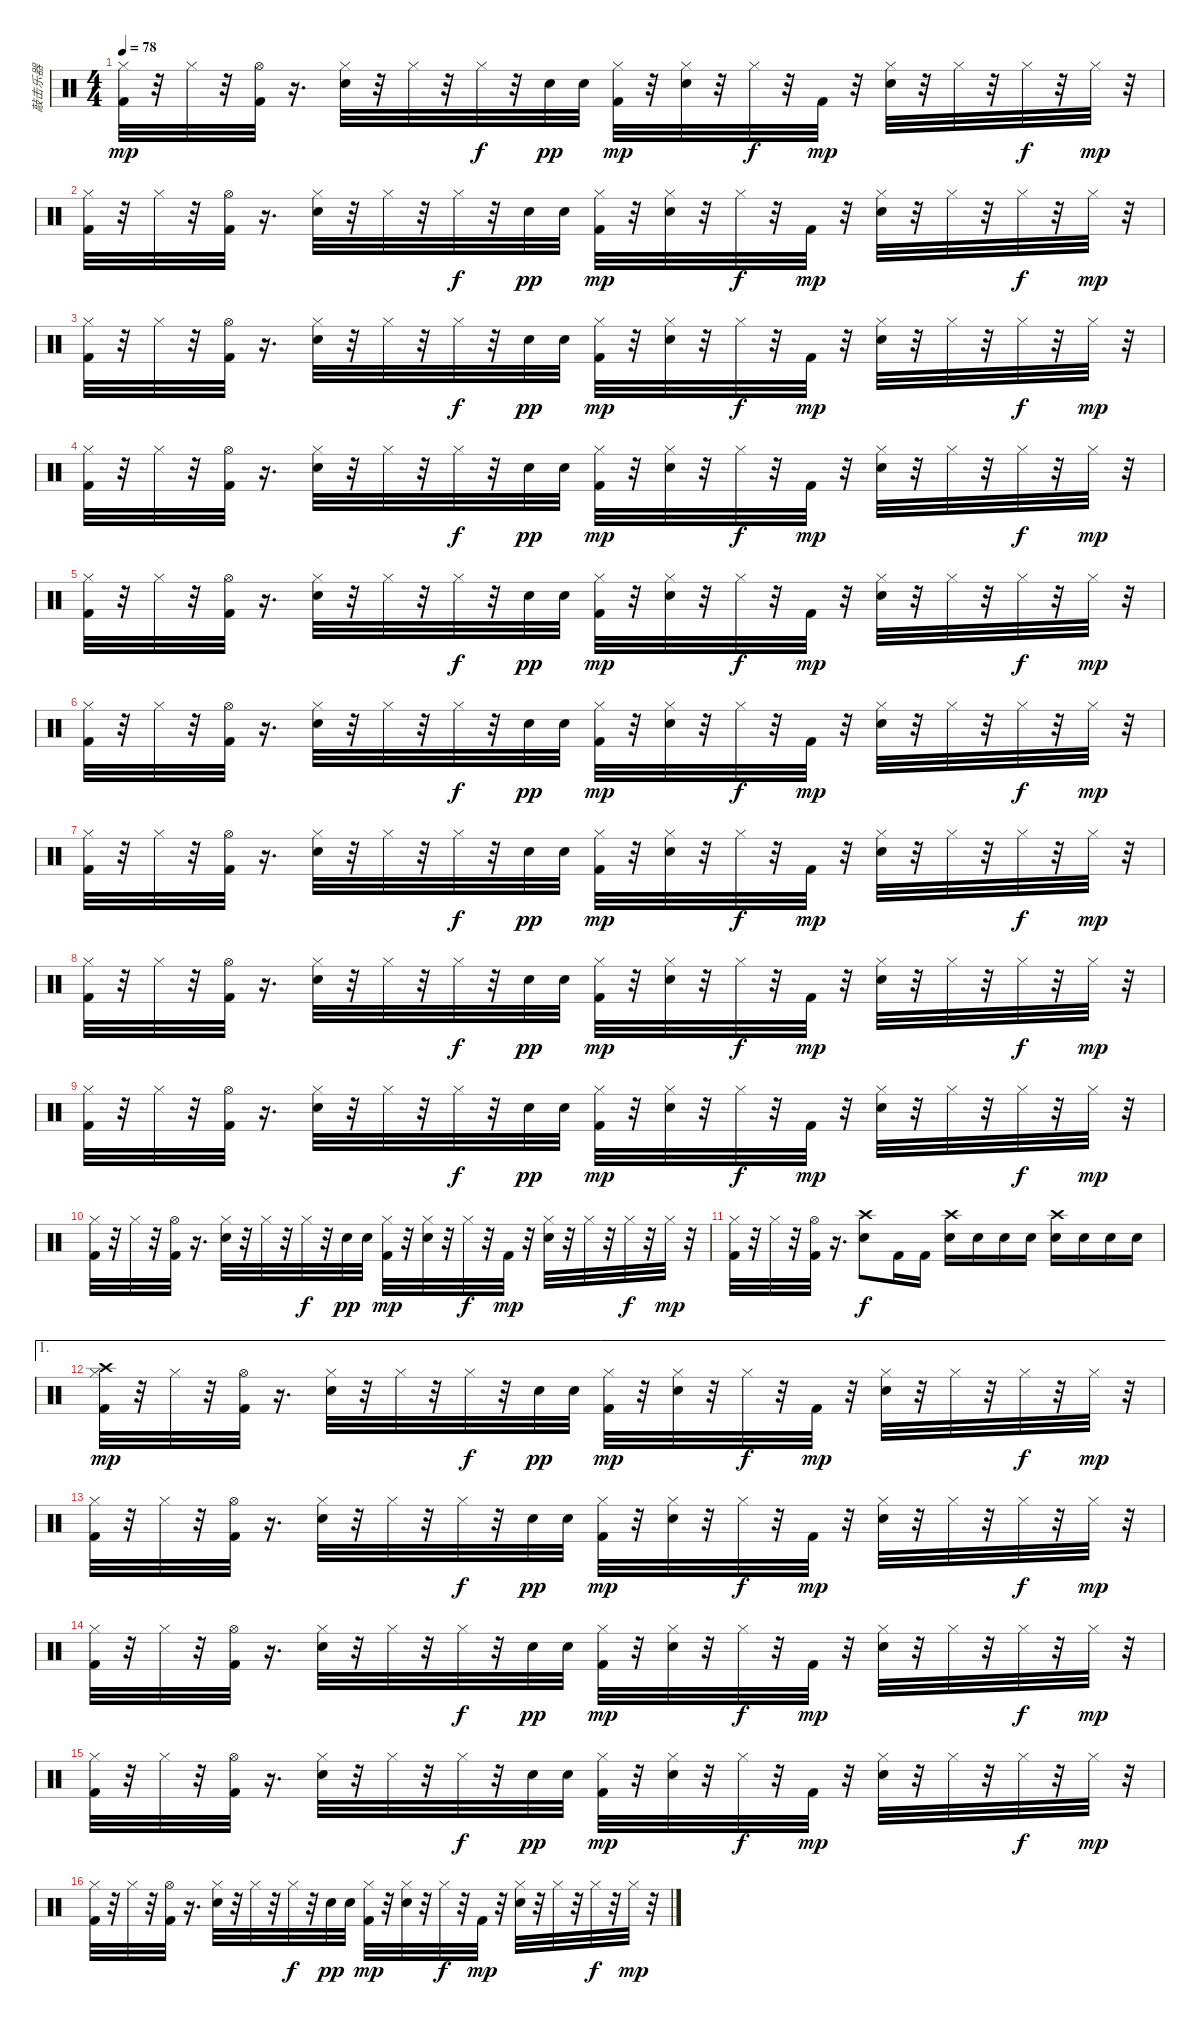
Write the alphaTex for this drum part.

\track ("敲击乐器" "敲击乐器") {instrument percussion}
\staff {score}
\articulation defaults
\ts (4 4)
\tempo 78
\clef neutral
\ks c
("Hi-Hat (closed)" "Kick (hit) 2").32{dy mp} r.32 "Hi-Hat (closed)".32 r.32 ("Hi-Hat (open)" "Kick (hit) 2").32 r.16{d} ("Hi-Hat (closed)" "Electric Snare (hit)").32 r.32 "Hi-Hat (closed)".32 r.32 "Hi-Hat (closed)".32{dy f} r.32 "Electric Snare (hit)".32{dy pp} "Electric Snare (hit)".32 ("Kick (hit) 2" "Hi-Hat (closed)").32{dy mp} r.32 ("Hi-Hat (closed)" "Electric Snare (hit)").32 r.32 "Hi-Hat (closed)".32{dy f} r.32 "Kick (hit) 2".32{dy mp} r.32 ("Hi-Hat (closed)" "Electric Snare (hit)").32 r.32 "Hi-Hat (closed)".32 r.32 "Hi-Hat (closed)".32{dy f} r.32 "Hi-Hat (closed)".32{dy mp} r.32 |
("Hi-Hat (closed)" "Kick (hit) 2").32 r.32 "Hi-Hat (closed)".32 r.32 ("Hi-Hat (open)" "Kick (hit) 2").32 r.16{d} ("Hi-Hat (closed)" "Electric Snare (hit)").32 r.32 "Hi-Hat (closed)".32 r.32 "Hi-Hat (closed)".32{dy f} r.32 "Electric Snare (hit)".32{dy pp} "Electric Snare (hit)".32 ("Hi-Hat (closed)" "Kick (hit) 2").32{dy mp} r.32 ("Hi-Hat (closed)" "Electric Snare (hit)").32 r.32 "Hi-Hat (closed)".32{dy f} r.32 "Kick (hit) 2".32{dy mp} r.32 ("Electric Snare (hit)" "Hi-Hat (closed)").32 r.32 "Hi-Hat (closed)".32 r.32 "Hi-Hat (closed)".32{dy f} r.32 "Hi-Hat (closed)".32{dy mp} r.32 |
("Hi-Hat (closed)" "Kick (hit) 2").32 r.32 "Hi-Hat (closed)".32 r.32 ("Kick (hit) 2" "Hi-Hat (open)").32 r.16{d} ("Hi-Hat (closed)" "Electric Snare (hit)").32 r.32 "Hi-Hat (closed)".32 r.32 "Hi-Hat (closed)".32{dy f} r.32 "Electric Snare (hit)".32{dy pp} "Electric Snare (hit)".32 ("Hi-Hat (closed)" "Kick (hit) 2").32{dy mp} r.32 ("Hi-Hat (closed)" "Electric Snare (hit)").32 r.32 "Hi-Hat (closed)".32{dy f} r.32 "Kick (hit) 2".32{dy mp} r.32 ("Electric Snare (hit)" "Hi-Hat (closed)").32 r.32 "Hi-Hat (closed)".32 r.32 "Hi-Hat (closed)".32{dy f} r.32 "Hi-Hat (closed)".32{dy mp} r.32 |
("Hi-Hat (closed)" "Kick (hit) 2").32 r.32 "Hi-Hat (closed)".32 r.32 ("Kick (hit) 2" "Hi-Hat (open)").32 r.16{d} ("Hi-Hat (closed)" "Electric Snare (hit)").32 r.32 "Hi-Hat (closed)".32 r.32 "Hi-Hat (closed)".32{dy f} r.32 "Electric Snare (hit)".32{dy pp} "Electric Snare (hit)".32 ("Hi-Hat (closed)" "Kick (hit) 2").32{dy mp} r.32 ("Hi-Hat (closed)" "Electric Snare (hit)").32 r.32 "Hi-Hat (closed)".32{dy f} r.32 "Kick (hit) 2".32{dy mp} r.32 ("Electric Snare (hit)" "Hi-Hat (closed)").32 r.32 "Hi-Hat (closed)".32 r.32 "Hi-Hat (closed)".32{dy f} r.32 "Hi-Hat (closed)".32{dy mp} r.32 |
("Hi-Hat (closed)" "Kick (hit) 2").32 r.32 "Hi-Hat (closed)".32 r.32 ("Hi-Hat (open)" "Kick (hit) 2").32 r.16{d} ("Hi-Hat (closed)" "Electric Snare (hit)").32 r.32 "Hi-Hat (closed)".32 r.32 "Hi-Hat (closed)".32{dy f} r.32 "Electric Snare (hit)".32{dy pp} "Electric Snare (hit)".32 ("Kick (hit) 2" "Hi-Hat (closed)").32{dy mp} r.32 ("Hi-Hat (closed)" "Electric Snare (hit)").32 r.32 "Hi-Hat (closed)".32{dy f} r.32 "Kick (hit) 2".32{dy mp} r.32 ("Hi-Hat (closed)" "Electric Snare (hit)").32 r.32 "Hi-Hat (closed)".32 r.32 "Hi-Hat (closed)".32{dy f} r.32 "Hi-Hat (closed)".32{dy mp} r.32 |
("Hi-Hat (closed)" "Kick (hit) 2").32 r.32 "Hi-Hat (closed)".32 r.32 ("Hi-Hat (open)" "Kick (hit) 2").32 r.16{d} ("Hi-Hat (closed)" "Electric Snare (hit)").32 r.32 "Hi-Hat (closed)".32 r.32 "Hi-Hat (closed)".32{dy f} r.32 "Electric Snare (hit)".32{dy pp} "Electric Snare (hit)".32 ("Kick (hit) 2" "Hi-Hat (closed)").32{dy mp} r.32 ("Hi-Hat (closed)" "Electric Snare (hit)").32 r.32 "Hi-Hat (closed)".32{dy f} r.32 "Kick (hit) 2".32{dy mp} r.32 ("Hi-Hat (closed)" "Electric Snare (hit)").32 r.32 "Hi-Hat (closed)".32 r.32 "Hi-Hat (closed)".32{dy f} r.32 "Hi-Hat (closed)".32{dy mp} r.32 |
("Hi-Hat (closed)" "Kick (hit) 2").32 r.32 "Hi-Hat (closed)".32 r.32 ("Hi-Hat (open)" "Kick (hit) 2").32 r.16{d} ("Hi-Hat (closed)" "Electric Snare (hit)").32 r.32 "Hi-Hat (closed)".32 r.32 "Hi-Hat (closed)".32{dy f} r.32 "Electric Snare (hit)".32{dy pp} "Electric Snare (hit)".32 ("Hi-Hat (closed)" "Kick (hit) 2").32{dy mp} r.32 ("Hi-Hat (closed)" "Electric Snare (hit)").32 r.32 "Hi-Hat (closed)".32{dy f} r.32 "Kick (hit) 2".32{dy mp} r.32 ("Electric Snare (hit)" "Hi-Hat (closed)").32 r.32 "Hi-Hat (closed)".32 r.32 "Hi-Hat (closed)".32{dy f} r.32 "Hi-Hat (closed)".32{dy mp} r.32 |
("Hi-Hat (closed)" "Kick (hit) 2").32 r.32 "Hi-Hat (closed)".32 r.32 ("Kick (hit) 2" "Hi-Hat (open)").32 r.16{d} ("Hi-Hat (closed)" "Electric Snare (hit)").32 r.32 "Hi-Hat (closed)".32 r.32 "Hi-Hat (closed)".32{dy f} r.32 "Electric Snare (hit)".32{dy pp} "Electric Snare (hit)".32 ("Hi-Hat (closed)" "Kick (hit) 2").32{dy mp} r.32 ("Hi-Hat (closed)" "Electric Snare (hit)").32 r.32 "Hi-Hat (closed)".32{dy f} r.32 "Kick (hit) 2".32{dy mp} r.32 ("Electric Snare (hit)" "Hi-Hat (closed)").32 r.32 "Hi-Hat (closed)".32 r.32 "Hi-Hat (closed)".32{dy f} r.32 "Hi-Hat (closed)".32{dy mp} r.32 |
("Hi-Hat (closed)" "Kick (hit) 2").32 r.32 "Hi-Hat (closed)".32 r.32 ("Hi-Hat (open)" "Kick (hit) 2").32 r.16{d} ("Hi-Hat (closed)" "Electric Snare (hit)").32 r.32 "Hi-Hat (closed)".32 r.32 "Hi-Hat (closed)".32{dy f} r.32 "Electric Snare (hit)".32{dy pp} "Electric Snare (hit)".32 ("Kick (hit) 2" "Hi-Hat (closed)").32{dy mp} r.32 ("Hi-Hat (closed)" "Electric Snare (hit)").32 r.32 "Hi-Hat (closed)".32{dy f} r.32 "Kick (hit) 2".32{dy mp} r.32 ("Hi-Hat (closed)" "Electric Snare (hit)").32 r.32 "Hi-Hat (closed)".32 r.32 "Hi-Hat (closed)".32{dy f} r.32 "Hi-Hat (closed)".32{dy mp} r.32 |
("Hi-Hat (closed)" "Kick (hit) 2").32 r.32 "Hi-Hat (closed)".32 r.32 ("Hi-Hat (open)" "Kick (hit) 2").32 r.16{d} ("Hi-Hat (closed)" "Electric Snare (hit)").32 r.32 "Hi-Hat (closed)".32 r.32 "Hi-Hat (closed)".32{dy f} r.32 "Electric Snare (hit)".32{dy pp} "Electric Snare (hit)".32 ("Kick (hit) 2" "Hi-Hat (closed)").32{dy mp} r.32 ("Hi-Hat (closed)" "Electric Snare (hit)").32 r.32 "Hi-Hat (closed)".32{dy f} r.32 "Kick (hit) 2".32{dy mp} r.32 ("Hi-Hat (closed)" "Electric Snare (hit)").32 r.32 "Hi-Hat (closed)".32 r.32 "Hi-Hat (closed)".32{dy f} r.32 "Hi-Hat (closed)".32{dy mp} r.32 |
("Hi-Hat (closed)" "Kick (hit) 2").32 r.32 "Hi-Hat (closed)".32 r.32 ("Hi-Hat (open)" "Kick (hit) 2").32 r.16{d} ("Crash high (hit)" "Snare (hit) 2").8{dy f} "Kick (hit) 2".16 "Kick (hit) 2".16 ("Crash high (hit)" "Snare (hit) 2").16 "Snare (hit) 2".16 "Snare (hit) 2".16 "Snare (hit) 2".16 ("Crash high (hit)" "Snare (hit) 2").16 "Snare (hit) 2".16 "Snare (hit) 2".16 "Snare (hit) 2".16 |
\ae 1
("Hi-Hat (closed)" "Kick (hit) 2" "Crash high (hit)").32{dy mp} r.32 "Hi-Hat (closed)".32 r.32 ("Kick (hit) 2" "Hi-Hat (open)").32 r.16{d} ("Hi-Hat (closed)" "Electric Snare (hit)").32 r.32 "Hi-Hat (closed)".32 r.32 "Hi-Hat (closed)".32{dy f} r.32 "Electric Snare (hit)".32{dy pp} "Electric Snare (hit)".32 ("Hi-Hat (closed)" "Kick (hit) 2").32{dy mp} r.32 ("Hi-Hat (closed)" "Electric Snare (hit)").32 r.32 "Hi-Hat (closed)".32{dy f} r.32 "Kick (hit) 2".32{dy mp} r.32 ("Electric Snare (hit)" "Hi-Hat (closed)").32 r.32 "Hi-Hat (closed)".32 r.32 "Hi-Hat (closed)".32{dy f} r.32 "Hi-Hat (closed)".32{dy mp} r.32 |
("Hi-Hat (closed)" "Kick (hit) 2").32 r.32 "Hi-Hat (closed)".32 r.32 ("Kick (hit) 2" "Hi-Hat (open)").32 r.16{d} ("Hi-Hat (closed)" "Electric Snare (hit)").32 r.32 "Hi-Hat (closed)".32 r.32 "Hi-Hat (closed)".32{dy f} r.32 "Electric Snare (hit)".32{dy pp} "Electric Snare (hit)".32 ("Hi-Hat (closed)" "Kick (hit) 2").32{dy mp} r.32 ("Hi-Hat (closed)" "Electric Snare (hit)").32 r.32 "Hi-Hat (closed)".32{dy f} r.32 "Kick (hit) 2".32{dy mp} r.32 ("Electric Snare (hit)" "Hi-Hat (closed)").32 r.32 "Hi-Hat (closed)".32 r.32 "Hi-Hat (closed)".32{dy f} r.32 "Hi-Hat (closed)".32{dy mp} r.32 |
("Hi-Hat (closed)" "Kick (hit) 2").32 r.32 "Hi-Hat (closed)".32 r.32 ("Hi-Hat (open)" "Kick (hit) 2").32 r.16{d} ("Hi-Hat (closed)" "Electric Snare (hit)").32 r.32 "Hi-Hat (closed)".32 r.32 "Hi-Hat (closed)".32{dy f} r.32 "Electric Snare (hit)".32{dy pp} "Electric Snare (hit)".32 ("Kick (hit) 2" "Hi-Hat (closed)").32{dy mp} r.32 ("Hi-Hat (closed)" "Electric Snare (hit)").32 r.32 "Hi-Hat (closed)".32{dy f} r.32 "Kick (hit) 2".32{dy mp} r.32 ("Hi-Hat (closed)" "Electric Snare (hit)").32 r.32 "Hi-Hat (closed)".32 r.32 "Hi-Hat (closed)".32{dy f} r.32 "Hi-Hat (closed)".32{dy mp} r.32 |
("Hi-Hat (closed)" "Kick (hit) 2").32 r.32 "Hi-Hat (closed)".32 r.32 ("Hi-Hat (open)" "Kick (hit) 2").32 r.16{d} ("Hi-Hat (closed)" "Electric Snare (hit)").32 r.32 "Hi-Hat (closed)".32 r.32 "Hi-Hat (closed)".32{dy f} r.32 "Electric Snare (hit)".32{dy pp} "Electric Snare (hit)".32 ("Kick (hit) 2" "Hi-Hat (closed)").32{dy mp} r.32 ("Hi-Hat (closed)" "Electric Snare (hit)").32 r.32 "Hi-Hat (closed)".32{dy f} r.32 "Kick (hit) 2".32{dy mp} r.32 ("Hi-Hat (closed)" "Electric Snare (hit)").32 r.32 "Hi-Hat (closed)".32 r.32 "Hi-Hat (closed)".32{dy f} r.32 "Hi-Hat (closed)".32{dy mp} r.32 |
("Hi-Hat (closed)" "Kick (hit) 2").32 r.32 "Hi-Hat (closed)".32 r.32 ("Kick (hit) 2" "Hi-Hat (open)").32 r.16{d} ("Hi-Hat (closed)" "Electric Snare (hit)").32 r.32 "Hi-Hat (closed)".32 r.32 "Hi-Hat (closed)".32{dy f} r.32 "Electric Snare (hit)".32{dy pp} "Electric Snare (hit)".32 ("Hi-Hat (closed)" "Kick (hit) 2").32{dy mp} r.32 ("Hi-Hat (closed)" "Electric Snare (hit)").32 r.32 "Hi-Hat (closed)".32{dy f} r.32 "Kick (hit) 2".32{dy mp} r.32 ("Electric Snare (hit)" "Hi-Hat (closed)").32 r.32 "Hi-Hat (closed)".32 r.32 "Hi-Hat (closed)".32{dy f} r.32 "Hi-Hat (closed)".32{dy mp} r.32
